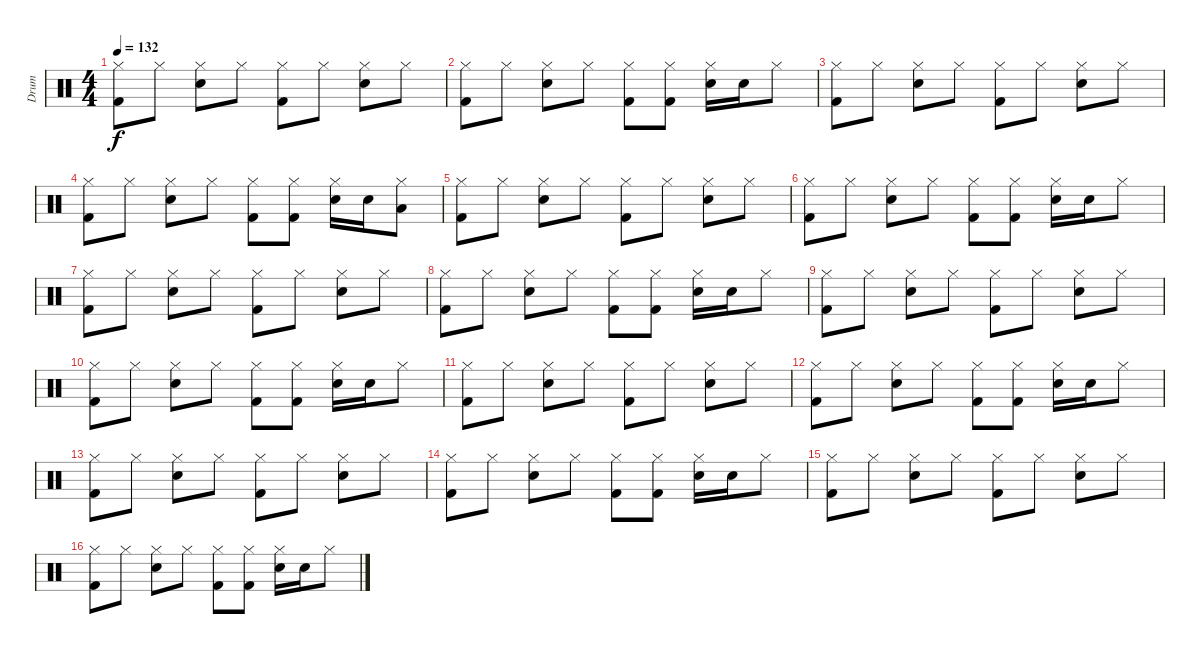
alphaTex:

\track ("Drum" "Drum") {instrument percussion}
\staff {score}
\articulation defaults
\ts (4 4)
\tempo 132
\clef neutral
\ks c
("Hi-Hat (closed)" "Kick (hit) 2").8{dy f} "Hi-Hat (closed)".8 ("Hi-Hat (closed)" "Electric Snare (hit)").8 "Hi-Hat (closed)".8 ("Hi-Hat (closed)" "Kick (hit) 2").8 "Hi-Hat (closed)".8 ("Hi-Hat (closed)" "Electric Snare (hit)").8 "Hi-Hat (closed)".8 |
("Hi-Hat (closed)" "Kick (hit) 2").8 "Hi-Hat (closed)".8 ("Hi-Hat (closed)" "Electric Snare (hit)").8 "Hi-Hat (closed)".8 ("Hi-Hat (closed)" "Kick (hit) 2").8 ("Hi-Hat (closed)" "Kick (hit) 2").8 ("Hi-Hat (closed)" "Electric Snare (hit)").16 "Electric Snare (hit)".16 "Hi-Hat (closed)".8 |
("Hi-Hat (closed)" "Kick (hit) 2").8 "Hi-Hat (closed)".8 ("Hi-Hat (closed)" "Electric Snare (hit)").8 "Hi-Hat (closed)".8 ("Hi-Hat (closed)" "Kick (hit) 2").8 "Hi-Hat (closed)".8 ("Hi-Hat (closed)" "Electric Snare (hit)").8 "Hi-Hat (closed)".8 |
("Hi-Hat (closed)" "Kick (hit) 2").8 "Hi-Hat (closed)".8 ("Hi-Hat (closed)" "Electric Snare (hit)").8 "Hi-Hat (closed)".8 ("Hi-Hat (closed)" "Kick (hit) 2").8 ("Hi-Hat (closed)" "Kick (hit) 2").8 ("Hi-Hat (closed)" "Electric Snare (hit)").16 "Electric Snare (hit)".16 ("Hi-Hat (closed)" "Low Tom (hit)").8 |
("Hi-Hat (closed)" "Kick (hit) 2").8 "Hi-Hat (closed)".8 ("Hi-Hat (closed)" "Electric Snare (hit)").8 "Hi-Hat (closed)".8 ("Hi-Hat (closed)" "Kick (hit) 2").8 "Hi-Hat (closed)".8 ("Hi-Hat (closed)" "Electric Snare (hit)").8 "Hi-Hat (closed)".8 |
("Hi-Hat (closed)" "Kick (hit) 2").8 "Hi-Hat (closed)".8 ("Hi-Hat (closed)" "Electric Snare (hit)").8 "Hi-Hat (closed)".8 ("Hi-Hat (closed)" "Kick (hit) 2").8 ("Hi-Hat (closed)" "Kick (hit) 2").8 ("Hi-Hat (closed)" "Electric Snare (hit)").16 "Electric Snare (hit)".16 "Hi-Hat (closed)".8 |
("Hi-Hat (closed)" "Kick (hit) 2").8 "Hi-Hat (closed)".8 ("Hi-Hat (closed)" "Electric Snare (hit)").8 "Hi-Hat (closed)".8 ("Hi-Hat (closed)" "Kick (hit) 2").8 "Hi-Hat (closed)".8 ("Hi-Hat (closed)" "Electric Snare (hit)").8 "Hi-Hat (closed)".8 |
("Hi-Hat (closed)" "Kick (hit) 2").8 "Hi-Hat (closed)".8 ("Hi-Hat (closed)" "Electric Snare (hit)").8 "Hi-Hat (closed)".8 ("Hi-Hat (closed)" "Kick (hit) 2").8 ("Hi-Hat (closed)" "Kick (hit) 2").8 ("Hi-Hat (closed)" "Electric Snare (hit)").16 "Electric Snare (hit)".16 "Hi-Hat (closed)".8 |
("Hi-Hat (closed)" "Kick (hit) 2").8 "Hi-Hat (closed)".8 ("Hi-Hat (closed)" "Electric Snare (hit)").8 "Hi-Hat (closed)".8 ("Hi-Hat (closed)" "Kick (hit) 2").8 "Hi-Hat (closed)".8 ("Hi-Hat (closed)" "Electric Snare (hit)").8 "Hi-Hat (closed)".8 |
("Hi-Hat (closed)" "Kick (hit) 2").8 "Hi-Hat (closed)".8 ("Hi-Hat (closed)" "Electric Snare (hit)").8 "Hi-Hat (closed)".8 ("Hi-Hat (closed)" "Kick (hit) 2").8 ("Hi-Hat (closed)" "Kick (hit) 2").8 ("Hi-Hat (closed)" "Electric Snare (hit)").16 "Electric Snare (hit)".16 "Hi-Hat (closed)".8 |
("Hi-Hat (closed)" "Kick (hit) 2").8 "Hi-Hat (closed)".8 ("Hi-Hat (closed)" "Electric Snare (hit)").8 "Hi-Hat (closed)".8 ("Hi-Hat (closed)" "Kick (hit) 2").8 "Hi-Hat (closed)".8 ("Hi-Hat (closed)" "Electric Snare (hit)").8 "Hi-Hat (closed)".8 |
("Hi-Hat (closed)" "Kick (hit) 2").8 "Hi-Hat (closed)".8 ("Hi-Hat (closed)" "Electric Snare (hit)").8 "Hi-Hat (closed)".8 ("Hi-Hat (closed)" "Kick (hit) 2").8 ("Hi-Hat (closed)" "Kick (hit) 2").8 ("Hi-Hat (closed)" "Electric Snare (hit)").16 "Electric Snare (hit)".16 "Hi-Hat (closed)".8 |
("Hi-Hat (closed)" "Kick (hit) 2").8 "Hi-Hat (closed)".8 ("Hi-Hat (closed)" "Electric Snare (hit)").8 "Hi-Hat (closed)".8 ("Hi-Hat (closed)" "Kick (hit) 2").8 "Hi-Hat (closed)".8 ("Hi-Hat (closed)" "Electric Snare (hit)").8 "Hi-Hat (closed)".8 |
("Hi-Hat (closed)" "Kick (hit) 2").8 "Hi-Hat (closed)".8 ("Hi-Hat (closed)" "Electric Snare (hit)").8 "Hi-Hat (closed)".8 ("Hi-Hat (closed)" "Kick (hit) 2").8 ("Hi-Hat (closed)" "Kick (hit) 2").8 ("Hi-Hat (closed)" "Electric Snare (hit)").16 "Electric Snare (hit)".16 "Hi-Hat (closed)".8 |
("Hi-Hat (closed)" "Kick (hit) 2").8 "Hi-Hat (closed)".8 ("Hi-Hat (closed)" "Electric Snare (hit)").8 "Hi-Hat (closed)".8 ("Hi-Hat (closed)" "Kick (hit) 2").8 "Hi-Hat (closed)".8 ("Hi-Hat (closed)" "Electric Snare (hit)").8 "Hi-Hat (closed)".8 |
("Hi-Hat (closed)" "Kick (hit) 2").8 "Hi-Hat (closed)".8 ("Hi-Hat (closed)" "Electric Snare (hit)").8 "Hi-Hat (closed)".8 ("Hi-Hat (closed)" "Kick (hit) 2").8 ("Hi-Hat (closed)" "Kick (hit) 2").8 ("Hi-Hat (closed)" "Electric Snare (hit)").16 "Electric Snare (hit)".16 "Hi-Hat (closed)".8
